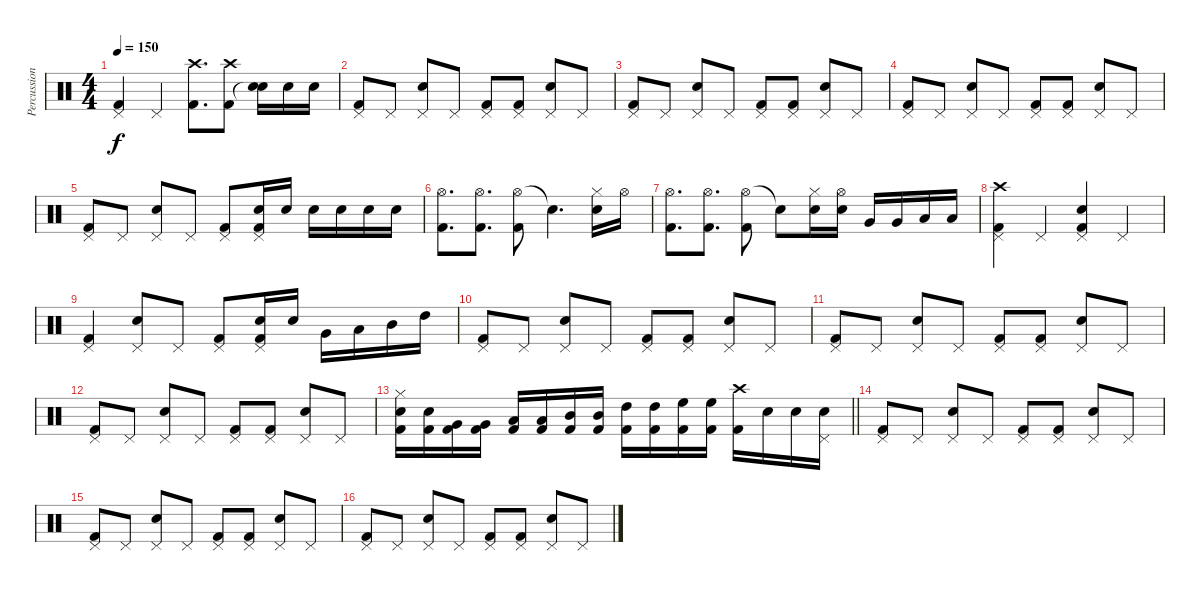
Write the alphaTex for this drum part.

\track ("Percussion" "Percussion") {instrument percussion}
\staff {score}
\articulation defaults
\ts (4 4)
\tempo 150
\clef neutral
\ks c
("Kick (hit) 2" "Pedal Hi-Hat (hit)").4{dy f} "Pedal Hi-Hat (hit)".4 ("Crash high (hit)" "Kick (hit) 2").8{d} ("Crash high (hit)" "Kick (hit) 2").8 ("Electric Snare (hit)" "Snare (hit)"{t}).16 "Electric Snare (hit)".16 "Electric Snare (hit)".16 |
("Pedal Hi-Hat (hit)" "Kick (hit) 2").8 "Pedal Hi-Hat (hit)".8 ("Pedal Hi-Hat (hit)" "Electric Snare (hit)").8 "Pedal Hi-Hat (hit)".8 ("Pedal Hi-Hat (hit)" "Kick (hit) 2").8 ("Pedal Hi-Hat (hit)" "Kick (hit) 2").8 ("Pedal Hi-Hat (hit)" "Electric Snare (hit)").8 "Pedal Hi-Hat (hit)".8 |
("Pedal Hi-Hat (hit)" "Kick (hit) 2").8 "Pedal Hi-Hat (hit)".8 ("Pedal Hi-Hat (hit)" "Electric Snare (hit)").8 "Pedal Hi-Hat (hit)".8 ("Pedal Hi-Hat (hit)" "Kick (hit) 2").8 ("Pedal Hi-Hat (hit)" "Kick (hit) 2").8 ("Pedal Hi-Hat (hit)" "Electric Snare (hit)").8 "Pedal Hi-Hat (hit)".8 |
("Pedal Hi-Hat (hit)" "Kick (hit) 2").8 "Pedal Hi-Hat (hit)".8 ("Pedal Hi-Hat (hit)" "Electric Snare (hit)").8 "Pedal Hi-Hat (hit)".8 ("Pedal Hi-Hat (hit)" "Kick (hit) 2").8 ("Pedal Hi-Hat (hit)" "Kick (hit) 2").8 ("Pedal Hi-Hat (hit)" "Electric Snare (hit)").8 "Pedal Hi-Hat (hit)".8 |
("Pedal Hi-Hat (hit)" "Kick (hit) 2").8 "Pedal Hi-Hat (hit)".8 ("Pedal Hi-Hat (hit)" "Electric Snare (hit)").8 "Pedal Hi-Hat (hit)".8 ("Pedal Hi-Hat (hit)" "Kick (hit) 2").8 ("Electric Snare (hit)" "Pedal Hi-Hat (hit)" "Kick (hit) 2").16 "Electric Snare (hit)".16 "Electric Snare (hit)".16 "Electric Snare (hit)".16 "Electric Snare (hit)".16 "Electric Snare (hit)".16 |
("Hi-Hat (open)" "Kick (hit) 2").8{d} ("Hi-Hat (open)" "Kick (hit) 2").8{d} ("Hi-Hat (open)" "Kick (hit) 2").8 "Snare (hit)"{t}.4{d} ("Hi-Hat (closed)" "Electric Snare (hit)").16 "Hi-Hat (open)".16 |
("Hi-Hat (open)" "Kick (hit) 2").8{d} ("Hi-Hat (open)" "Kick (hit) 2").8{d} ("Hi-Hat (open)" "Kick (hit) 2").8 "Snare (hit)"{t}.8 ("Hi-Hat (closed)" "Electric Snare (hit)").16 ("Hi-Hat (open)" "Electric Snare (hit)").16 "Very Low Tom (hit)".16 "Very Low Tom (hit)".16 "Low Tom (hit)".16 "Low Tom (hit)".16 |
("Kick (hit) 2" "Pedal Hi-Hat (hit)" "Crash high (hit)").4 "Pedal Hi-Hat (hit)".4 ("Kick (hit) 2" "Pedal Hi-Hat (hit)" "Electric Snare (hit)").4 "Pedal Hi-Hat (hit)".4 |
("Pedal Hi-Hat (hit)" "Kick (hit) 2").4 ("Pedal Hi-Hat (hit)" "Electric Snare (hit)").8 "Pedal Hi-Hat (hit)".8 ("Pedal Hi-Hat (hit)" "Kick (hit) 2").8 ("Electric Snare (hit)" "Pedal Hi-Hat (hit)" "Kick (hit) 2").16 "Electric Snare (hit)".16 "Very Low Tom (hit)".16 "Low Tom (hit)".16 "Mid Tom (hit)".16 "High Tom (hit)".16 |
("Pedal Hi-Hat (hit)" "Kick (hit) 2").8 "Pedal Hi-Hat (hit)".8 ("Pedal Hi-Hat (hit)" "Electric Snare (hit)").8 "Pedal Hi-Hat (hit)".8 ("Pedal Hi-Hat (hit)" "Kick (hit) 2").8 ("Pedal Hi-Hat (hit)" "Kick (hit) 2").8 ("Pedal Hi-Hat (hit)" "Electric Snare (hit)").8 "Pedal Hi-Hat (hit)".8 |
("Pedal Hi-Hat (hit)" "Kick (hit) 2").8 "Pedal Hi-Hat (hit)".8 ("Pedal Hi-Hat (hit)" "Electric Snare (hit)").8 "Pedal Hi-Hat (hit)".8 ("Pedal Hi-Hat (hit)" "Kick (hit) 2").8 ("Pedal Hi-Hat (hit)" "Kick (hit) 2").8 ("Pedal Hi-Hat (hit)" "Electric Snare (hit)").8 "Pedal Hi-Hat (hit)".8 |
("Pedal Hi-Hat (hit)" "Kick (hit) 2").8 "Pedal Hi-Hat (hit)".8 ("Pedal Hi-Hat (hit)" "Electric Snare (hit)").8 "Pedal Hi-Hat (hit)".8 ("Pedal Hi-Hat (hit)" "Kick (hit) 2").8 ("Pedal Hi-Hat (hit)" "Kick (hit) 2").8 ("Pedal Hi-Hat (hit)" "Electric Snare (hit)").8 "Pedal Hi-Hat (hit)".8 |
\barLineRight lightlight
("Kick (hit) 2" "Hi-Hat (closed)" "Electric Snare (hit)").16 ("Kick (hit) 2" "Electric Snare (hit)").16 ("Kick (hit) 2" "Very Low Tom (hit)").16 ("Kick (hit) 2" "Very Low Tom (hit)").16 ("Kick (hit) 2" "Low Tom (hit)").16 ("Kick (hit) 2" "Low Tom (hit)").16 ("Kick (hit) 2" "Mid Tom (hit)").16 ("Kick (hit) 2" "Mid Tom (hit)").16 ("Kick (hit) 2" "High Tom (hit)").16 ("Kick (hit) 2" "High Tom (hit)").16 ("Kick (hit) 2" "High Floor Tom (hit)").16 ("Kick (hit) 2" "High Floor Tom (hit)").16 ("Crash high (hit)" "Kick (hit) 2").16 "Electric Snare (hit)".16 "Electric Snare (hit)".16 ("Electric Snare (hit)" "Pedal Hi-Hat (hit)").16 |
("Pedal Hi-Hat (hit)" "Kick (hit) 2").8 "Pedal Hi-Hat (hit)".8 ("Pedal Hi-Hat (hit)" "Electric Snare (hit)").8 "Pedal Hi-Hat (hit)".8 ("Pedal Hi-Hat (hit)" "Kick (hit) 2").8 ("Pedal Hi-Hat (hit)" "Kick (hit) 2").8 ("Pedal Hi-Hat (hit)" "Electric Snare (hit)").8 "Pedal Hi-Hat (hit)".8 |
("Pedal Hi-Hat (hit)" "Kick (hit) 2").8 "Pedal Hi-Hat (hit)".8 ("Pedal Hi-Hat (hit)" "Electric Snare (hit)").8 "Pedal Hi-Hat (hit)".8 ("Pedal Hi-Hat (hit)" "Kick (hit) 2").8 ("Pedal Hi-Hat (hit)" "Kick (hit) 2").8 ("Pedal Hi-Hat (hit)" "Electric Snare (hit)").8 "Pedal Hi-Hat (hit)".8 |
("Pedal Hi-Hat (hit)" "Kick (hit) 2").8 "Pedal Hi-Hat (hit)".8 ("Pedal Hi-Hat (hit)" "Electric Snare (hit)").8 "Pedal Hi-Hat (hit)".8 ("Pedal Hi-Hat (hit)" "Kick (hit) 2").8 ("Pedal Hi-Hat (hit)" "Kick (hit) 2").8 ("Pedal Hi-Hat (hit)" "Electric Snare (hit)").8 "Pedal Hi-Hat (hit)".8
